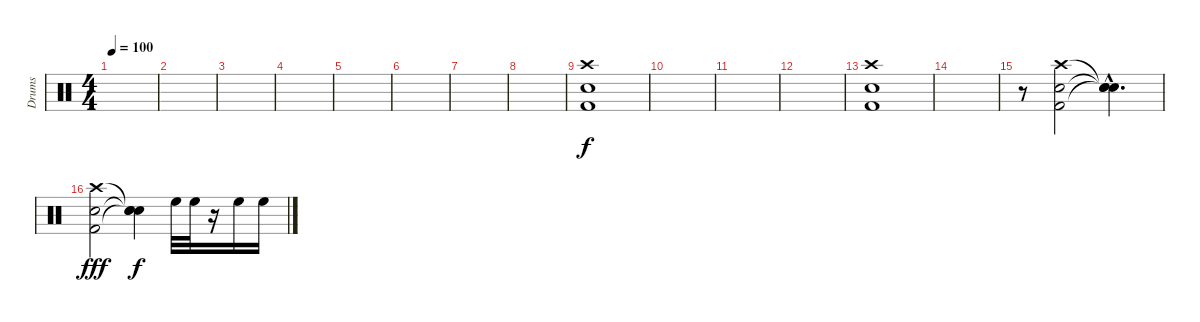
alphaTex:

\track ("Drums" "Drums") {instrument percussion}
\staff {score}
\articulation defaults
\ts (4 4)
\tempo 100
\clef neutral
\ks c
|
|
|
|
|
|
|
|
("Crash high (hit)" "Snare (hit) 2" "Kick (hit) 2").1 |
|
|
|
("Crash high (hit)" "Snare (hit) 2" "Kick (hit) 2").1 |
|
r.8 ("Crash high (hit)" "Snare (hit) 2" "Kick (hit) 2").2 ("Snare (hit)"{hac t} "Snare (hit)"{hac t} "Snare (hit)"{hac t}).4{d dy f} |
("Crash high (hit)" "Snare (hit) 2" "Kick (hit) 2").2{dy fff} ("Snare (hit)"{t} "Snare (hit)"{t} "Snare (hit)"{t}).4{dy f} "High Floor Tom (hit)".32 "High Floor Tom (hit)".32 r.16 "High Floor Tom (hit)".16 "High Floor Tom (hit)".16
